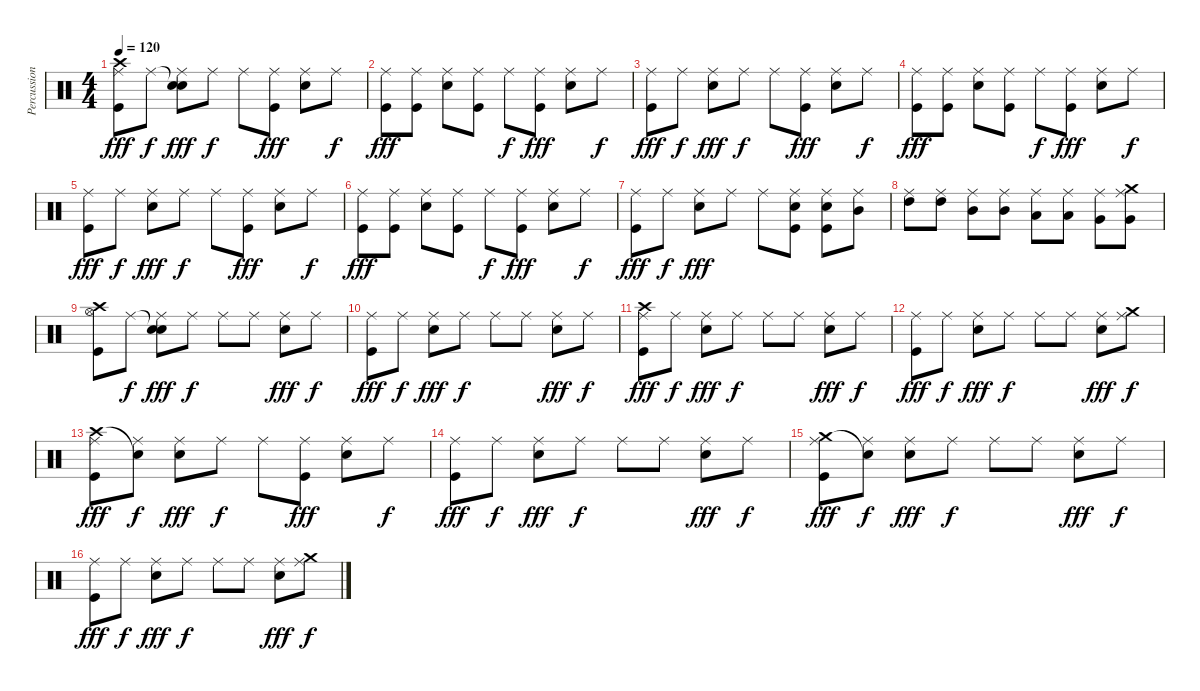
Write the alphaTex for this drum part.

\track ("Percussion" "Percussion") {solo instrument percussion}
\staff {score}
\articulation defaults
\ts (4 4)
\tempo 120
\clef neutral
\ks c
("Crash high (hit)" "Ride (middle)" "Kick (hit)").8{dy fff} "Ride (middle)".8{dy f} ("Snare (hit)"{t} "Ride (middle)" "Snare (hit) 2").8{dy fff} "Ride (middle)".8{dy f} "Ride (middle)".8 ("Ride (middle)" "Kick (hit)").8{dy fff} ("Ride (middle)" "Snare (hit) 2").8 "Ride (middle)".8{dy f} |
("Ride (middle)" "Kick (hit)").8{dy fff} ("Ride (middle)" "Kick (hit)").8 ("Ride (middle)" "Snare (hit) 2").8 ("Ride (middle)" "Kick (hit)").8 "Ride (middle)".8{dy f} ("Ride (middle)" "Kick (hit)").8{dy fff} ("Ride (middle)" "Snare (hit) 2").8 "Ride (middle)".8{dy f} |
("Ride (middle)" "Kick (hit)").8{dy fff} "Ride (middle)".8{dy f} ("Ride (middle)" "Snare (hit) 2").8{dy fff} "Ride (middle)".8{dy f} "Ride (middle)".8 ("Ride (middle)" "Kick (hit)").8{dy fff} ("Ride (middle)" "Snare (hit) 2").8 "Ride (middle)".8{dy f} |
("Ride (middle)" "Kick (hit)").8{dy fff} ("Ride (middle)" "Kick (hit)").8 ("Ride (middle)" "Snare (hit) 2").8 ("Ride (middle)" "Kick (hit)").8 "Ride (middle)".8{dy f} ("Ride (middle)" "Kick (hit)").8{dy fff} ("Ride (middle)" "Snare (hit) 2").8 "Ride (middle)".8{dy f} |
("Ride (middle)" "Kick (hit)").8{dy fff} "Ride (middle)".8{dy f} ("Ride (middle)" "Snare (hit) 2").8{dy fff} "Ride (middle)".8{dy f} "Ride (middle)".8 ("Ride (middle)" "Kick (hit)").8{dy fff} ("Ride (middle)" "Snare (hit) 2").8 "Ride (middle)".8{dy f} |
("Ride (middle)" "Kick (hit)").8{dy fff} ("Ride (middle)" "Kick (hit)").8 ("Ride (middle)" "Snare (hit) 2").8 ("Ride (middle)" "Kick (hit)").8 "Ride (middle)".8{dy f} ("Ride (middle)" "Kick (hit)").8{dy fff} ("Ride (middle)" "Snare (hit) 2").8 "Ride (middle)".8{dy f} |
("Ride (middle)" "Kick (hit)").8{dy fff} "Ride (middle)".8{dy f} ("Ride (middle)" "Snare (hit) 2").8{dy fff} "Ride (middle)".8 "Ride (middle)".8 ("Ride (middle)" "Kick (hit)" "Snare (hit) 2").8 ("Ride (middle)" "Kick (hit)" "Snare (hit) 2").8 ("Ride (middle)" "Mid Tom (hit)").8 |
("Ride (middle)" "High Tom (hit)").8 ("Ride (middle)" "High Tom (hit)").8 ("Ride (middle)" "Mid Tom (hit)").8 ("Ride (middle)" "Mid Tom (hit)").8 ("Ride (middle)" "Low Tom (hit)").8 ("Ride (middle)" "Low Tom (hit)").8 ("Ride (middle)" "Very Low Tom (hit)").8 ("Crash medium (hit)" "Ride (middle)" "Very Low Tom (hit)").8 |
("Crash high (hit)" "Hi-Hat (open)" "Kick (hit)").8 "Ride (middle)".8{dy f} ("Snare (hit)"{t} "Ride (middle)" "Snare (hit) 2").8{dy fff} "Ride (middle)".8{dy f} "Ride (middle)".8 "Ride (middle)".8 ("Ride (middle)" "Snare (hit) 2").8{dy fff} "Ride (middle)".8{dy f} |
("Ride (middle)" "Kick (hit)").8{dy fff} "Ride (middle)".8{dy f} ("Ride (middle)" "Snare (hit) 2").8{dy fff} "Ride (middle)".8{dy f} "Ride (middle)".8 "Ride (middle)".8 ("Ride (middle)" "Snare (hit) 2").8{dy fff} "Ride (middle)".8{dy f} |
("Crash high (hit)" "Ride (middle)" "Kick (hit)").8{dy fff} "Ride (middle)".8{dy f} ("Ride (middle)" "Snare (hit) 2").8{dy fff} "Ride (middle)".8{dy f} "Ride (middle)".8 "Ride (middle)".8 ("Ride (middle)" "Snare (hit) 2").8{dy fff} "Ride (middle)".8{dy f} |
("Ride (middle)" "Kick (hit)").8{dy fff} "Ride (middle)".8{dy f} ("Ride (middle)" "Snare (hit) 2").8{dy fff} "Ride (middle)".8{dy f} "Ride (middle)".8 "Ride (middle)".8 ("Ride (middle)" "Snare (hit) 2").8{dy fff} ("Crash medium (hit)" "Ride (middle)").8{dy f} |
("Crash high (hit)" "Ride (middle)" "Kick (hit)").8{dy fff} ("Snare (hit)"{t} "Ride (middle)").8{dy f} ("Ride (middle)" "Snare (hit) 2").8{dy fff} "Ride (middle)".8{dy f} "Ride (middle)".8 ("Ride (middle)" "Kick (hit)").8{dy fff} ("Ride (middle)" "Snare (hit) 2").8 "Ride (middle)".8{dy f} |
("Ride (middle)" "Kick (hit)").8{dy fff} "Ride (middle)".8{dy f} ("Ride (middle)" "Snare (hit) 2").8{dy fff} "Ride (middle)".8{dy f} "Ride (middle)".8 "Ride (middle)".8 ("Ride (middle)" "Snare (hit) 2").8{dy fff} "Ride (middle)".8{dy f} |
("Crash medium (hit)" "Ride (middle)" "Kick (hit)").8{dy fff} ("Snare (hit)"{t} "Ride (middle)").8{dy f} ("Ride (middle)" "Snare (hit) 2").8{dy fff} "Ride (middle)".8{dy f} "Ride (middle)".8 "Ride (middle)".8 ("Ride (middle)" "Snare (hit) 2").8{dy fff} "Ride (middle)".8{dy f} |
("Ride (middle)" "Kick (hit)").8{dy fff} "Ride (middle)".8{dy f} ("Ride (middle)" "Snare (hit) 2").8{dy fff} "Ride (middle)".8{dy f} "Ride (middle)".8 "Ride (middle)".8 ("Ride (middle)" "Snare (hit) 2").8{dy fff} ("Crash medium (hit)" "Ride (middle)").8{dy f}
